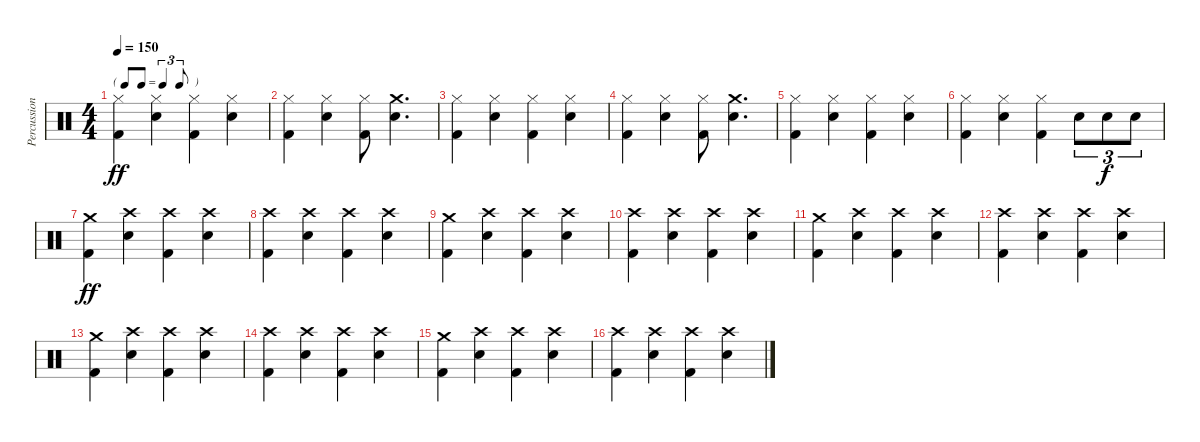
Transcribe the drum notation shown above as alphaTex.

\track ("Percussion" "Percussion") {instrument percussion}
\staff {score}
\articulation defaults
\ts (4 4)
\tf triplet8th
\tempo 150
\clef neutral
\ks c
("Hi-Hat (closed)" "Kick (hit) 2").4{dy ff} ("Hi-Hat (closed)" "Electric Snare (hit)").4 ("Hi-Hat (closed)" "Kick (hit) 2").4 ("Hi-Hat (closed)" "Electric Snare (hit)").4 |
("Hi-Hat (closed)" "Kick (hit) 2").4 ("Hi-Hat (closed)" "Electric Snare (hit)").4 ("Hi-Hat (closed)" "Kick (hit) 2").8 ("Crash medium (hit)" "Electric Snare (hit)").4{d} |
("Hi-Hat (closed)" "Kick (hit) 2").4 ("Hi-Hat (closed)" "Electric Snare (hit)").4 ("Hi-Hat (closed)" "Kick (hit) 2").4 ("Hi-Hat (closed)" "Electric Snare (hit)").4 |
("Hi-Hat (closed)" "Kick (hit) 2").4 ("Hi-Hat (closed)" "Electric Snare (hit)").4 ("Hi-Hat (closed)" "Kick (hit) 2").8 ("Crash medium (hit)" "Electric Snare (hit)").4{d} |
("Hi-Hat (closed)" "Kick (hit) 2").4 ("Hi-Hat (closed)" "Electric Snare (hit)").4 ("Hi-Hat (closed)" "Kick (hit) 2").4 ("Hi-Hat (closed)" "Electric Snare (hit)").4 |
("Hi-Hat (closed)" "Kick (hit) 2").4 ("Hi-Hat (closed)" "Electric Snare (hit)").4 ("Hi-Hat (closed)" "Kick (hit) 2").4 "Electric Snare (hit)".8{tu (3 2)} "Electric Snare (hit)".8{tu (3 2) dy f} "Electric Snare (hit)".8{tu (3 2)} |
("Crash medium (hit)" "Kick (hit) 2").4{dy ff} ("Crash high (hit)" "Electric Snare (hit)").4 ("Crash high (hit)" "Kick (hit) 2").4 ("Crash high (hit)" "Electric Snare (hit)").4 |
("Crash high (hit)" "Kick (hit) 2").4 ("Crash high (hit)" "Electric Snare (hit)").4 ("Crash high (hit)" "Kick (hit) 2").4 ("Crash high (hit)" "Electric Snare (hit)").4 |
("Crash medium (hit)" "Kick (hit) 2").4 ("Crash high (hit)" "Electric Snare (hit)").4 ("Crash high (hit)" "Kick (hit) 2").4 ("Crash high (hit)" "Electric Snare (hit)").4 |
("Crash high (hit)" "Kick (hit) 2").4 ("Crash high (hit)" "Electric Snare (hit)").4 ("Crash high (hit)" "Kick (hit) 2").4 ("Crash high (hit)" "Electric Snare (hit)").4 |
("Crash medium (hit)" "Kick (hit) 2").4 ("Crash high (hit)" "Electric Snare (hit)").4 ("Crash high (hit)" "Kick (hit) 2").4 ("Crash high (hit)" "Electric Snare (hit)").4 |
("Crash high (hit)" "Kick (hit) 2").4 ("Crash high (hit)" "Electric Snare (hit)").4 ("Crash high (hit)" "Kick (hit) 2").4 ("Crash high (hit)" "Electric Snare (hit)").4 |
("Crash medium (hit)" "Kick (hit) 2").4 ("Crash high (hit)" "Electric Snare (hit)").4 ("Crash high (hit)" "Kick (hit) 2").4 ("Crash high (hit)" "Electric Snare (hit)").4 |
("Crash high (hit)" "Kick (hit) 2").4 ("Crash high (hit)" "Electric Snare (hit)").4 ("Crash high (hit)" "Kick (hit) 2").4 ("Crash high (hit)" "Electric Snare (hit)").4 |
("Crash medium (hit)" "Kick (hit) 2").4 ("Crash high (hit)" "Electric Snare (hit)").4 ("Crash high (hit)" "Kick (hit) 2").4 ("Crash high (hit)" "Electric Snare (hit)").4 |
("Crash high (hit)" "Kick (hit) 2").4 ("Crash high (hit)" "Electric Snare (hit)").4 ("Crash high (hit)" "Kick (hit) 2").4 ("Crash high (hit)" "Electric Snare (hit)").4
